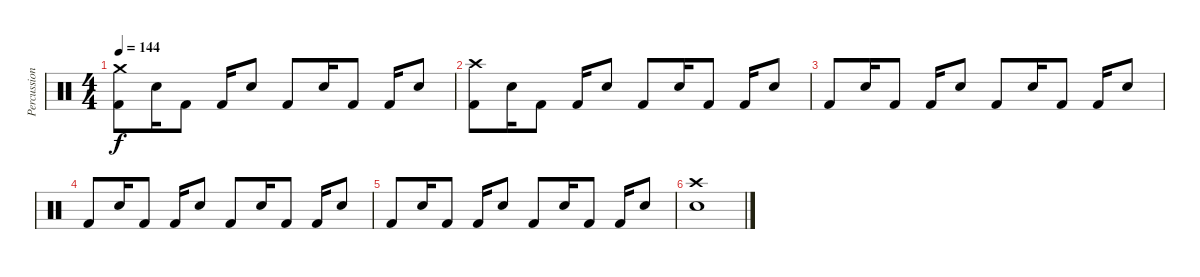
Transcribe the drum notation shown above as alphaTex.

\track ("Percussion" "Percussion") {instrument percussion}
\staff {score}
\articulation defaults
\ts (4 4)
\tempo 144
\clef neutral
\ks c
("Crash medium (hit)" "Kick (hit) 2").8{dy f} "Snare (hit) 2".16 "Kick (hit) 2".8 "Kick (hit) 2".16 "Snare (hit) 2".8 "Kick (hit) 2".8 "Snare (hit) 2".16 "Kick (hit) 2".8 "Kick (hit) 2".16 "Snare (hit) 2".8 |
("Crash high (hit)" "Kick (hit) 2").8 "Snare (hit) 2".16 "Kick (hit) 2".8 "Kick (hit) 2".16 "Snare (hit) 2".8 "Kick (hit) 2".8 "Snare (hit) 2".16 "Kick (hit) 2".8 "Kick (hit) 2".16 "Snare (hit) 2".8 |
"Kick (hit) 2".8 "Snare (hit) 2".16 "Kick (hit) 2".8 "Kick (hit) 2".16 "Snare (hit) 2".8 "Kick (hit) 2".8 "Snare (hit) 2".16 "Kick (hit) 2".8 "Kick (hit) 2".16 "Snare (hit) 2".8 |
"Kick (hit) 2".8 "Snare (hit) 2".16 "Kick (hit) 2".8 "Kick (hit) 2".16 "Snare (hit) 2".8 "Kick (hit) 2".8 "Snare (hit) 2".16 "Kick (hit) 2".8 "Kick (hit) 2".16 "Snare (hit) 2".8 |
"Kick (hit) 2".8 "Snare (hit) 2".16 "Kick (hit) 2".8 "Kick (hit) 2".16 "Snare (hit) 2".8 "Kick (hit) 2".8 "Snare (hit) 2".16 "Kick (hit) 2".8 "Kick (hit) 2".16 "Snare (hit) 2".8 |
("Crash high (hit)" "Snare (hit) 2").1
